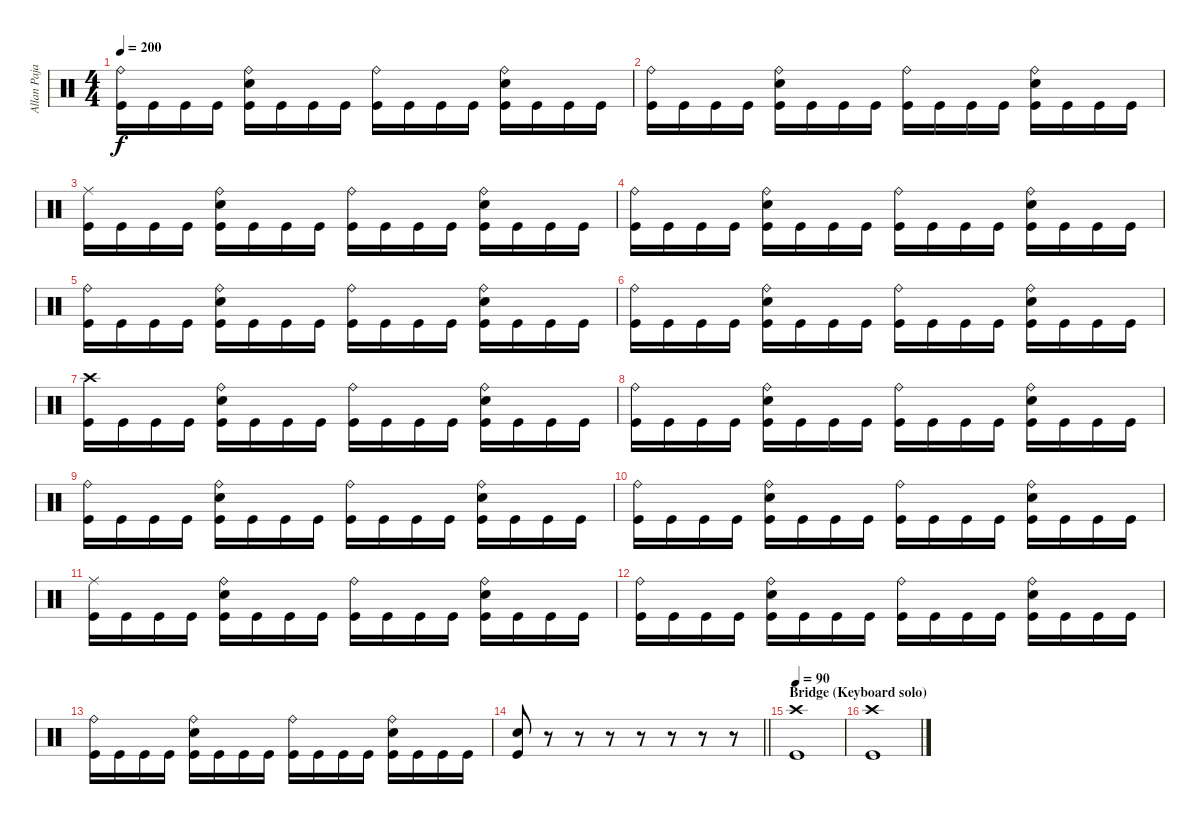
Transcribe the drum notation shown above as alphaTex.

\track ("Allan Pajarin (Drums)" "Allan Paja") {instrument percussion}
\staff {score}
\articulation defaults
\ts (4 4)
\tempo 200
\clef neutral
\ks c
("Ride (bell)" "Kick (hit)").16{dy f} "Kick (hit)".16 "Kick (hit)".16 "Kick (hit)".16 ("Ride (bell)" "Electric Snare (hit)" "Kick (hit)").16 "Kick (hit)".16 "Kick (hit)".16 "Kick (hit)".16 ("Ride (bell)" "Kick (hit)").16 "Kick (hit)".16 "Kick (hit)".16 "Kick (hit)".16 ("Ride (bell)" "Electric Snare (hit)" "Kick (hit)").16 "Kick (hit)".16 "Kick (hit)".16 "Kick (hit)".16 |
("Ride (bell)" "Kick (hit)").16 "Kick (hit)".16 "Kick (hit)".16 "Kick (hit)".16 ("Ride (bell)" "Electric Snare (hit)" "Kick (hit)").16 "Kick (hit)".16 "Kick (hit)".16 "Kick (hit)".16 ("Ride (bell)" "Kick (hit)").16 "Kick (hit)".16 "Kick (hit)".16 "Kick (hit)".16 ("Ride (bell)" "Electric Snare (hit)" "Kick (hit)").16 "Kick (hit)".16 "Kick (hit)".16 "Kick (hit)".16 |
("Ride (middle)" "Kick (hit)").16 "Kick (hit)".16 "Kick (hit)".16 "Kick (hit)".16 ("Ride (bell)" "Electric Snare (hit)" "Kick (hit)").16 "Kick (hit)".16 "Kick (hit)".16 "Kick (hit)".16 ("Ride (bell)" "Kick (hit)").16 "Kick (hit)".16 "Kick (hit)".16 "Kick (hit)".16 ("Ride (bell)" "Electric Snare (hit)" "Kick (hit)").16 "Kick (hit)".16 "Kick (hit)".16 "Kick (hit)".16 |
("Ride (bell)" "Kick (hit)").16 "Kick (hit)".16 "Kick (hit)".16 "Kick (hit)".16 ("Ride (bell)" "Electric Snare (hit)" "Kick (hit)").16 "Kick (hit)".16 "Kick (hit)".16 "Kick (hit)".16 ("Ride (bell)" "Kick (hit)").16 "Kick (hit)".16 "Kick (hit)".16 "Kick (hit)".16 ("Ride (bell)" "Electric Snare (hit)" "Kick (hit)").16 "Kick (hit)".16 "Kick (hit)".16 "Kick (hit)".16 |
("Ride (bell)" "Kick (hit)").16 "Kick (hit)".16 "Kick (hit)".16 "Kick (hit)".16 ("Ride (bell)" "Electric Snare (hit)" "Kick (hit)").16 "Kick (hit)".16 "Kick (hit)".16 "Kick (hit)".16 ("Ride (bell)" "Kick (hit)").16 "Kick (hit)".16 "Kick (hit)".16 "Kick (hit)".16 ("Ride (bell)" "Electric Snare (hit)" "Kick (hit)").16 "Kick (hit)".16 "Kick (hit)".16 "Kick (hit)".16 |
("Ride (bell)" "Kick (hit)").16 "Kick (hit)".16 "Kick (hit)".16 "Kick (hit)".16 ("Ride (bell)" "Electric Snare (hit)" "Kick (hit)").16 "Kick (hit)".16 "Kick (hit)".16 "Kick (hit)".16 ("Ride (bell)" "Kick (hit)").16 "Kick (hit)".16 "Kick (hit)".16 "Kick (hit)".16 ("Ride (bell)" "Electric Snare (hit)" "Kick (hit)").16 "Kick (hit)".16 "Kick (hit)".16 "Kick (hit)".16 |
("Crash high (hit)" "Kick (hit)").16 "Kick (hit)".16 "Kick (hit)".16 "Kick (hit)".16 ("Ride (bell)" "Electric Snare (hit)" "Kick (hit)").16 "Kick (hit)".16 "Kick (hit)".16 "Kick (hit)".16 ("Ride (bell)" "Kick (hit)").16 "Kick (hit)".16 "Kick (hit)".16 "Kick (hit)".16 ("Ride (bell)" "Electric Snare (hit)" "Kick (hit)").16 "Kick (hit)".16 "Kick (hit)".16 "Kick (hit)".16 |
("Ride (bell)" "Kick (hit)").16 "Kick (hit)".16 "Kick (hit)".16 "Kick (hit)".16 ("Ride (bell)" "Electric Snare (hit)" "Kick (hit)").16 "Kick (hit)".16 "Kick (hit)".16 "Kick (hit)".16 ("Ride (bell)" "Kick (hit)").16 "Kick (hit)".16 "Kick (hit)".16 "Kick (hit)".16 ("Ride (bell)" "Electric Snare (hit)" "Kick (hit)").16 "Kick (hit)".16 "Kick (hit)".16 "Kick (hit)".16 |
("Ride (bell)" "Kick (hit)").16 "Kick (hit)".16 "Kick (hit)".16 "Kick (hit)".16 ("Ride (bell)" "Electric Snare (hit)" "Kick (hit)").16 "Kick (hit)".16 "Kick (hit)".16 "Kick (hit)".16 ("Ride (bell)" "Kick (hit)").16 "Kick (hit)".16 "Kick (hit)".16 "Kick (hit)".16 ("Ride (bell)" "Electric Snare (hit)" "Kick (hit)").16 "Kick (hit)".16 "Kick (hit)".16 "Kick (hit)".16 |
("Ride (bell)" "Kick (hit)").16 "Kick (hit)".16 "Kick (hit)".16 "Kick (hit)".16 ("Ride (bell)" "Electric Snare (hit)" "Kick (hit)").16 "Kick (hit)".16 "Kick (hit)".16 "Kick (hit)".16 ("Ride (bell)" "Kick (hit)").16 "Kick (hit)".16 "Kick (hit)".16 "Kick (hit)".16 ("Ride (bell)" "Electric Snare (hit)" "Kick (hit)").16 "Kick (hit)".16 "Kick (hit)".16 "Kick (hit)".16 |
("Ride (middle)" "Kick (hit)").16 "Kick (hit)".16 "Kick (hit)".16 "Kick (hit)".16 ("Ride (bell)" "Electric Snare (hit)" "Kick (hit)").16 "Kick (hit)".16 "Kick (hit)".16 "Kick (hit)".16 ("Ride (bell)" "Kick (hit)").16 "Kick (hit)".16 "Kick (hit)".16 "Kick (hit)".16 ("Ride (bell)" "Electric Snare (hit)" "Kick (hit)").16 "Kick (hit)".16 "Kick (hit)".16 "Kick (hit)".16 |
("Ride (bell)" "Kick (hit)").16 "Kick (hit)".16 "Kick (hit)".16 "Kick (hit)".16 ("Ride (bell)" "Electric Snare (hit)" "Kick (hit)").16 "Kick (hit)".16 "Kick (hit)".16 "Kick (hit)".16 ("Ride (bell)" "Kick (hit)").16 "Kick (hit)".16 "Kick (hit)".16 "Kick (hit)".16 ("Ride (bell)" "Electric Snare (hit)" "Kick (hit)").16 "Kick (hit)".16 "Kick (hit)".16 "Kick (hit)".16 |
("Ride (bell)" "Kick (hit)").16 "Kick (hit)".16 "Kick (hit)".16 "Kick (hit)".16 ("Ride (bell)" "Electric Snare (hit)" "Kick (hit)").16 "Kick (hit)".16 "Kick (hit)".16 "Kick (hit)".16 ("Ride (bell)" "Kick (hit)").16 "Kick (hit)".16 "Kick (hit)".16 "Kick (hit)".16 ("Ride (bell)" "Electric Snare (hit)" "Kick (hit)").16 "Kick (hit)".16 "Kick (hit)".16 "Kick (hit)".16 |
\barLineRight lightlight
("Electric Snare (hit)" "Kick (hit)").8 r.8 r.8 r.8 r.8 r.8 r.8 r.8 |
\section ("" "Bridge (Keyboard solo)")
\tempo 90
("Kick (hit)" "Crash high (hit)").1 |
("Kick (hit)" "Crash high (hit)").1
